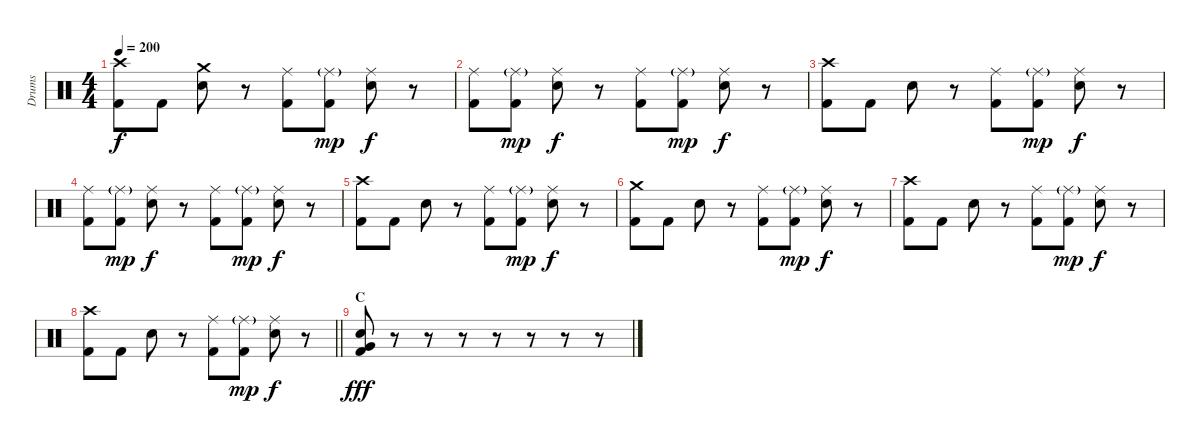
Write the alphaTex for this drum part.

\track ("Drums" "Drums") {instrument percussion}
\staff {score}
\articulation defaults
\ts (4 4)
\tempo 200
\clef neutral
\ks c
("Crash high (hit)" "Kick (hit) 2").8{dy f} "Kick (hit) 2".8 ("Crash medium (hit)" "Electric Snare (hit)").8 r.8 ("Ride (middle)" "Kick (hit) 2").8 ("Ride (middle)"{g} "Kick (hit) 2").8{dy mp} ("Ride (middle)" "Electric Snare (hit)").8{dy f} r.8 |
("Ride (middle)" "Kick (hit) 2").8 ("Ride (middle)"{g} "Kick (hit) 2").8{dy mp} ("Ride (middle)" "Electric Snare (hit)").8{dy f} r.8 ("Ride (middle)" "Kick (hit) 2").8 ("Ride (middle)"{g} "Kick (hit) 2").8{dy mp} ("Ride (middle)" "Electric Snare (hit)").8{dy f} r.8 |
("Crash high (hit)" "Kick (hit) 2").8 "Kick (hit) 2".8 "Electric Snare (hit)".8 r.8 ("Ride (middle)" "Kick (hit) 2").8 ("Ride (middle)"{g} "Kick (hit) 2").8{dy mp} ("Ride (middle)" "Electric Snare (hit)").8{dy f} r.8 |
("Ride (middle)" "Kick (hit) 2").8 ("Ride (middle)"{g} "Kick (hit) 2").8{dy mp} ("Ride (middle)" "Electric Snare (hit)").8{dy f} r.8 ("Ride (middle)" "Kick (hit) 2").8 ("Ride (middle)"{g} "Kick (hit) 2").8{dy mp} ("Ride (middle)" "Electric Snare (hit)").8{dy f} r.8 |
("Crash high (hit)" "Kick (hit) 2").8 "Kick (hit) 2".8 "Electric Snare (hit)".8 r.8 ("Ride (middle)" "Kick (hit) 2").8 ("Ride (middle)"{g} "Kick (hit) 2").8{dy mp} ("Ride (middle)" "Electric Snare (hit)").8{dy f} r.8 |
("Crash medium (hit)" "Kick (hit) 2").8 "Kick (hit) 2".8 "Electric Snare (hit)".8 r.8 ("Ride (middle)" "Kick (hit) 2").8 ("Ride (middle)"{g} "Kick (hit) 2").8{dy mp} ("Ride (middle)" "Electric Snare (hit)").8{dy f} r.8 |
("Crash high (hit)" "Kick (hit) 2").8 "Kick (hit) 2".8 "Electric Snare (hit)".8 r.8 ("Ride (middle)" "Kick (hit) 2").8 ("Ride (middle)"{g} "Kick (hit) 2").8{dy mp} ("Ride (middle)" "Electric Snare (hit)").8{dy f} r.8 |
\barLineRight lightlight
("Crash high (hit)" "Kick (hit) 2").8 "Kick (hit) 2".8 "Electric Snare (hit)".8 r.8 ("Ride (middle)" "Kick (hit) 2").8 ("Ride (middle)"{g} "Kick (hit) 2").8{dy mp} ("Ride (middle)" "Electric Snare (hit)").8{dy f} r.8 |
\section ("" "C")
("Very Low Tom (hit)" "Electric Snare (hit)" "Kick (hit) 2").8{dy fff} r.8 r.8 r.8 r.8 r.8 r.8 r.8
